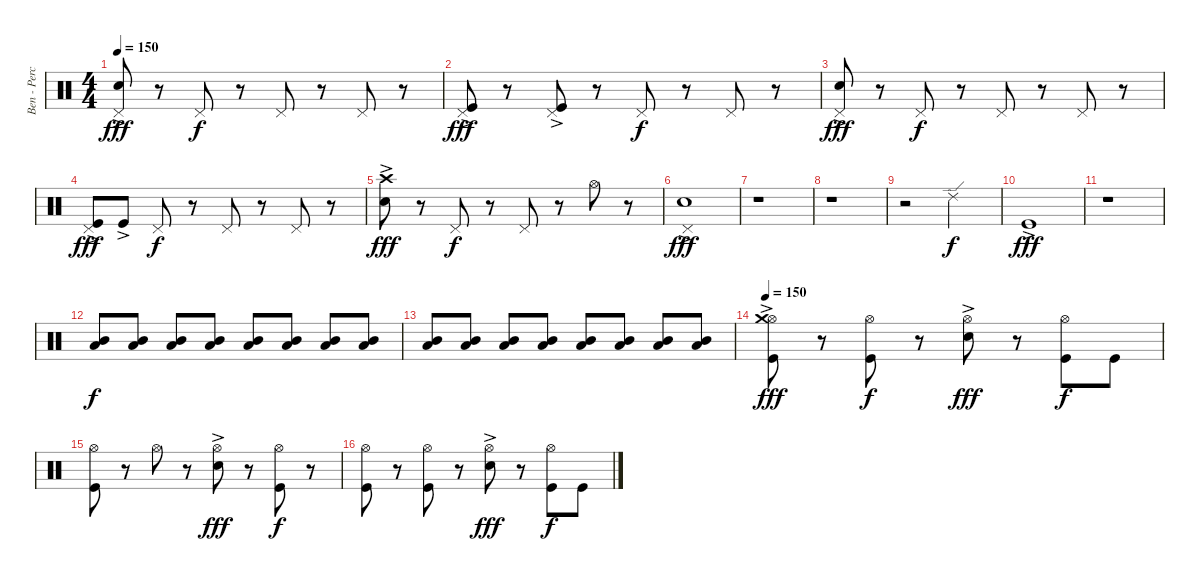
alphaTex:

\track ("Ben - Perception Twin - Drums" "Ben - Perc") {instrument percussion}
\staff {score}
\articulation defaults
\ts (4 4)
\tempo 150
\clef neutral
\ks c
("Pedal Hi-Hat (hit)" "Electric Snare (hit)"{ac}).8{dy fff} r.8 "Pedal Hi-Hat (hit)".8{dy f} r.8 "Pedal Hi-Hat (hit)".8 r.8 "Pedal Hi-Hat (hit)".8 r.8 |
("Pedal Hi-Hat (hit)" "Kick (hit)"{ac}).8{dy fff} r.8 ("Pedal Hi-Hat (hit)" "Kick (hit)"{ac}).8 r.8 "Pedal Hi-Hat (hit)".8{dy f} r.8 "Pedal Hi-Hat (hit)".8 r.8 |
("Pedal Hi-Hat (hit)" "Electric Snare (hit)"{ac}).8{dy fff} r.8 "Pedal Hi-Hat (hit)".8{dy f} r.8 "Pedal Hi-Hat (hit)".8 r.8 "Pedal Hi-Hat (hit)".8 r.8 |
("Pedal Hi-Hat (hit)" "Kick (hit)"{ac}).8{dy fff} "Kick (hit)"{ac}.8 "Pedal Hi-Hat (hit)".8{dy f} r.8 "Pedal Hi-Hat (hit)".8 r.8 "Pedal Hi-Hat (hit)".8 r.8 |
("Crash high (hit)" "Electric Snare (hit)"{ac}).8{dy fff} r.8 "Pedal Hi-Hat (hit)".8{dy f} r.8 "Pedal Hi-Hat (hit)".8 r.8 "Hi-Hat (open)".8 r.8 |
("Pedal Hi-Hat (hit)" "Electric Snare (hit)"{ac}).1{dy fff} |
r.1 |
r.1 |
r.2 "Ride (edge) 2".2{dy f} |
"Kick (hit)"{ac}.1{dy fff volume 16} |
r.1 |
("Mid Tom (hit)" "Low Tom (hit)").8{dy f volume 6} ("Mid Tom (hit)" "Low Tom (hit)").8 ("Mid Tom (hit)" "Low Tom (hit)").8{volume 7} ("Mid Tom (hit)" "Low Tom (hit)").8 ("Mid Tom (hit)" "Low Tom (hit)").8{volume 8} ("Mid Tom (hit)" "Low Tom (hit)").8 ("Mid Tom (hit)" "Low Tom (hit)").8{volume 9} ("Mid Tom (hit)" "Low Tom (hit)").8 |
("Mid Tom (hit)" "Low Tom (hit)").8{volume 10} ("Mid Tom (hit)" "Low Tom (hit)").8 ("Mid Tom (hit)" "Low Tom (hit)").8{volume 11} ("Mid Tom (hit)" "Low Tom (hit)").8 ("Mid Tom (hit)" "Low Tom (hit)").8{volume 13} ("Mid Tom (hit)" "Low Tom (hit)").8 ("Mid Tom (hit)" "Low Tom (hit)").8{volume 16} ("Mid Tom (hit)" "Low Tom (hit)").8 |
\tempo 150
("Hi-Hat (open)" "Crash medium (hit)"{ac} "Kick (hit)").8{dy fff} r.8 ("Hi-Hat (open)" "Kick (hit)").8{dy f} r.8 ("Hi-Hat (open)" "Electric Snare (hit)"{ac}).8{dy fff} r.8 ("Hi-Hat (open)" "Kick (hit)").8{dy f} "Kick (hit)".8 |
("Hi-Hat (open)" "Kick (hit)").8 r.8 "Hi-Hat (open)".8 r.8 ("Hi-Hat (open)" "Electric Snare (hit)"{ac}).8{dy fff} r.8 ("Hi-Hat (open)" "Kick (hit)").8{dy f} r.8 |
("Hi-Hat (open)" "Kick (hit)").8 r.8 ("Hi-Hat (open)" "Kick (hit)").8 r.8 ("Hi-Hat (open)" "Electric Snare (hit)"{ac}).8{dy fff} r.8 ("Hi-Hat (open)" "Kick (hit)").8{dy f} "Kick (hit)".8
